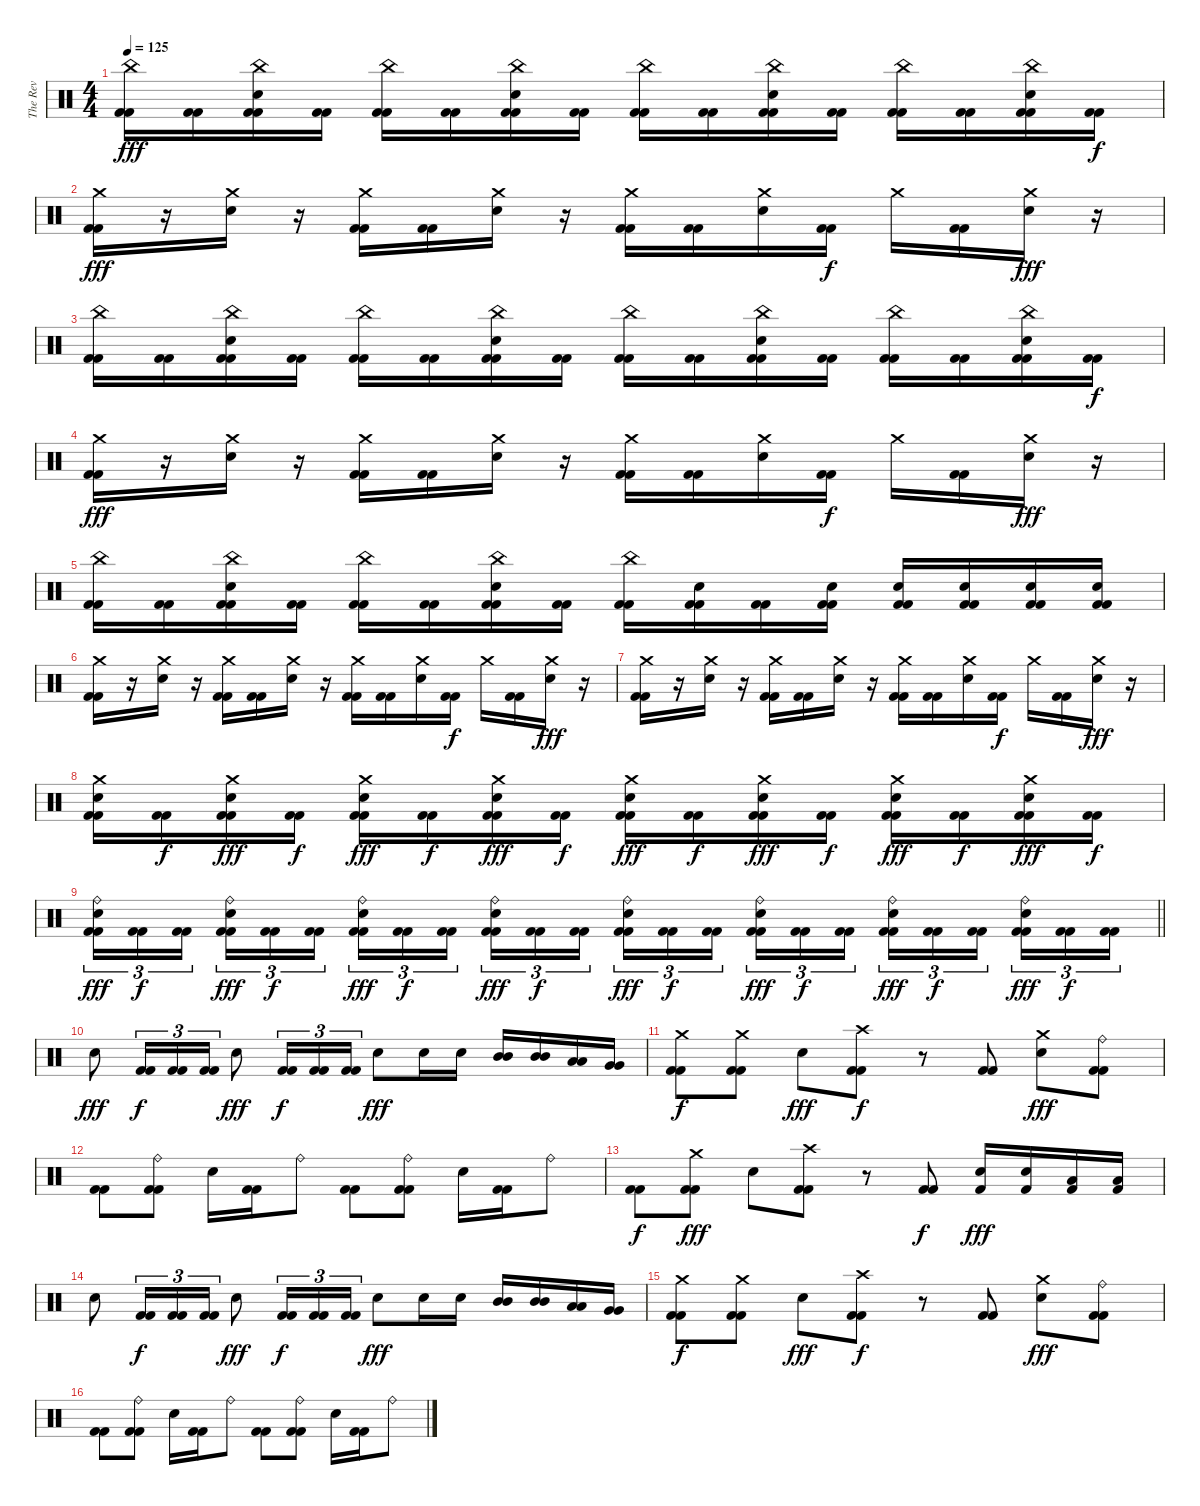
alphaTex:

\track ("The Rev" "The Rev") {mute instrument percussion}
\staff {score}
\articulation defaults
\ts (4 4)
\tempo 125
\clef neutral
\ks c
("China (hit)" "Kick (hit) 2" "Kick (hit) 2").16{dy fff} ("Kick (hit) 2" "Kick (hit) 2").16 ("China (hit)" "Electric Snare (hit)" "Kick (hit) 2" "Kick (hit) 2").16 ("Kick (hit) 2" "Kick (hit) 2").16 ("China (hit)" "Kick (hit) 2" "Kick (hit) 2").16 ("Kick (hit) 2" "Kick (hit) 2").16 ("China (hit)" "Electric Snare (hit)" "Kick (hit) 2" "Kick (hit) 2").16 ("Kick (hit) 2" "Kick (hit) 2").16 ("China (hit)" "Kick (hit) 2" "Kick (hit) 2").16 ("Kick (hit) 2" "Kick (hit) 2").16 ("China (hit)" "Electric Snare (hit)" "Kick (hit) 2" "Kick (hit) 2").16 ("Kick (hit) 2" "Kick (hit) 2").16 ("China (hit)" "Kick (hit) 2" "Kick (hit) 2").16 ("Kick (hit) 2" "Kick (hit) 2").16 ("China (hit)" "Electric Snare (hit)" "Kick (hit) 2" "Kick (hit) 2").16 ("Kick (hit) 2" "Kick (hit) 2").16{dy f} |
("Crash medium (hit)" "Kick (hit) 2" "Kick (hit) 2").16{dy fff} r.16 ("Crash medium (hit)" "Electric Snare (hit)").16 r.16 ("Crash medium (hit)" "Kick (hit) 2" "Kick (hit) 2").16 ("Kick (hit) 2" "Kick (hit) 2").16 ("Crash medium (hit)" "Electric Snare (hit)").16 r.16 ("Crash medium (hit)" "Kick (hit) 2" "Kick (hit) 2").16 ("Kick (hit) 2" "Kick (hit) 2").16 ("Crash medium (hit)" "Electric Snare (hit)").16 ("Kick (hit) 2" "Kick (hit) 2").16{dy f} "Crash medium (hit)".16 ("Kick (hit) 2" "Kick (hit) 2").16 ("Crash medium (hit)" "Electric Snare (hit)").16{dy fff} r.16 |
("China (hit)" "Kick (hit) 2" "Kick (hit) 2").16 ("Kick (hit) 2" "Kick (hit) 2").16 ("China (hit)" "Electric Snare (hit)" "Kick (hit) 2" "Kick (hit) 2").16 ("Kick (hit) 2" "Kick (hit) 2").16 ("China (hit)" "Kick (hit) 2" "Kick (hit) 2").16 ("Kick (hit) 2" "Kick (hit) 2").16 ("China (hit)" "Electric Snare (hit)" "Kick (hit) 2" "Kick (hit) 2").16 ("Kick (hit) 2" "Kick (hit) 2").16 ("China (hit)" "Kick (hit) 2" "Kick (hit) 2").16 ("Kick (hit) 2" "Kick (hit) 2").16 ("China (hit)" "Electric Snare (hit)" "Kick (hit) 2" "Kick (hit) 2").16 ("Kick (hit) 2" "Kick (hit) 2").16 ("China (hit)" "Kick (hit) 2" "Kick (hit) 2").16 ("Kick (hit) 2" "Kick (hit) 2").16 ("China (hit)" "Electric Snare (hit)" "Kick (hit) 2" "Kick (hit) 2").16 ("Kick (hit) 2" "Kick (hit) 2").16{dy f} |
("Crash medium (hit)" "Kick (hit) 2" "Kick (hit) 2").16{dy fff} r.16 ("Crash medium (hit)" "Electric Snare (hit)").16 r.16 ("Crash medium (hit)" "Kick (hit) 2" "Kick (hit) 2").16 ("Kick (hit) 2" "Kick (hit) 2").16 ("Crash medium (hit)" "Electric Snare (hit)").16 r.16 ("Crash medium (hit)" "Kick (hit) 2" "Kick (hit) 2").16 ("Kick (hit) 2" "Kick (hit) 2").16 ("Crash medium (hit)" "Electric Snare (hit)").16 ("Kick (hit) 2" "Kick (hit) 2").16{dy f} "Crash medium (hit)".16 ("Kick (hit) 2" "Kick (hit) 2").16 ("Crash medium (hit)" "Electric Snare (hit)").16{dy fff} r.16 |
("China (hit)" "Kick (hit) 2" "Kick (hit) 2").16 ("Kick (hit) 2" "Kick (hit) 2").16 ("China (hit)" "Electric Snare (hit)" "Kick (hit) 2" "Kick (hit) 2").16 ("Kick (hit) 2" "Kick (hit) 2").16 ("China (hit)" "Kick (hit) 2" "Kick (hit) 2").16 ("Kick (hit) 2" "Kick (hit) 2").16 ("China (hit)" "Electric Snare (hit)" "Kick (hit) 2" "Kick (hit) 2").16 ("Kick (hit) 2" "Kick (hit) 2").16 ("China (hit)" "Kick (hit) 2" "Kick (hit) 2").16 ("Electric Snare (hit)" "Kick (hit) 2" "Kick (hit) 2").16 ("Kick (hit) 2" "Kick (hit) 2").16 ("Electric Snare (hit)" "Kick (hit) 2" "Kick (hit) 2").16 ("Electric Snare (hit)" "Kick (hit) 2" "Kick (hit) 2").16 ("Electric Snare (hit)" "Kick (hit) 2" "Kick (hit) 2").16 ("Electric Snare (hit)" "Kick (hit) 2" "Kick (hit) 2").16 ("Electric Snare (hit)" "Kick (hit) 2" "Kick (hit) 2").16 |
("Crash medium (hit)" "Kick (hit) 2" "Kick (hit) 2").16 r.16 ("Crash medium (hit)" "Electric Snare (hit)").16 r.16 ("Crash medium (hit)" "Kick (hit) 2" "Kick (hit) 2").16 ("Kick (hit) 2" "Kick (hit) 2").16 ("Crash medium (hit)" "Electric Snare (hit)").16 r.16 ("Crash medium (hit)" "Kick (hit) 2" "Kick (hit) 2").16 ("Kick (hit) 2" "Kick (hit) 2").16 ("Crash medium (hit)" "Electric Snare (hit)").16 ("Kick (hit) 2" "Kick (hit) 2").16{dy f} "Crash medium (hit)".16 ("Kick (hit) 2" "Kick (hit) 2").16 ("Crash medium (hit)" "Electric Snare (hit)").16{dy fff} r.16 |
("Crash medium (hit)" "Kick (hit) 2" "Kick (hit) 2").16 r.16 ("Crash medium (hit)" "Electric Snare (hit)").16 r.16 ("Crash medium (hit)" "Kick (hit) 2" "Kick (hit) 2").16 ("Kick (hit) 2" "Kick (hit) 2").16 ("Crash medium (hit)" "Electric Snare (hit)").16 r.16 ("Crash medium (hit)" "Kick (hit) 2" "Kick (hit) 2").16 ("Kick (hit) 2" "Kick (hit) 2").16 ("Crash medium (hit)" "Electric Snare (hit)").16 ("Kick (hit) 2" "Kick (hit) 2").16{dy f} "Crash medium (hit)".16 ("Kick (hit) 2" "Kick (hit) 2").16 ("Crash medium (hit)" "Electric Snare (hit)").16{dy fff} r.16 |
("Crash medium (hit)" "Electric Snare (hit)" "Kick (hit) 2" "Kick (hit) 2").16 ("Kick (hit) 2" "Kick (hit) 2").16{dy f} ("Crash medium (hit)" "Electric Snare (hit)" "Kick (hit) 2" "Kick (hit) 2").16{dy fff} ("Kick (hit) 2" "Kick (hit) 2").16{dy f} ("Crash medium (hit)" "Electric Snare (hit)" "Kick (hit) 2" "Kick (hit) 2").16{dy fff} ("Kick (hit) 2" "Kick (hit) 2").16{dy f} ("Crash medium (hit)" "Electric Snare (hit)" "Kick (hit) 2" "Kick (hit) 2").16{dy fff} ("Kick (hit) 2" "Kick (hit) 2").16{dy f} ("Crash medium (hit)" "Electric Snare (hit)" "Kick (hit) 2" "Kick (hit) 2").16{dy fff} ("Kick (hit) 2" "Kick (hit) 2").16{dy f} ("Crash medium (hit)" "Electric Snare (hit)" "Kick (hit) 2" "Kick (hit) 2").16{dy fff} ("Kick (hit) 2" "Kick (hit) 2").16{dy f} ("Crash medium (hit)" "Electric Snare (hit)" "Kick (hit) 2" "Kick (hit) 2").16{dy fff} ("Kick (hit) 2" "Kick (hit) 2").16{dy f} ("Crash medium (hit)" "Electric Snare (hit)" "Kick (hit) 2" "Kick (hit) 2").16{dy fff} ("Kick (hit) 2" "Kick (hit) 2").16{dy f} |
\barLineRight lightlight
("Ride (bell)" "Electric Snare (hit)" "Kick (hit) 2" "Kick (hit) 2").16{tu (3 2) dy fff} ("Kick (hit) 2" "Kick (hit) 2").16{tu (3 2) dy f} ("Kick (hit) 2" "Kick (hit) 2").16{tu (3 2) beam splitsecondary} ("Ride (bell)" "Electric Snare (hit)" "Kick (hit) 2" "Kick (hit) 2").16{tu (3 2) dy fff} ("Kick (hit) 2" "Kick (hit) 2").16{tu (3 2) dy f} ("Kick (hit) 2" "Kick (hit) 2").16{tu (3 2)} ("Ride (bell)" "Electric Snare (hit)" "Kick (hit) 2" "Kick (hit) 2").16{tu (3 2) dy fff} ("Kick (hit) 2" "Kick (hit) 2").16{tu (3 2) dy f} ("Kick (hit) 2" "Kick (hit) 2").16{tu (3 2) beam splitsecondary} ("Ride (bell)" "Electric Snare (hit)" "Kick (hit) 2" "Kick (hit) 2").16{tu (3 2) dy fff} ("Kick (hit) 2" "Kick (hit) 2").16{tu (3 2) dy f} ("Kick (hit) 2" "Kick (hit) 2").16{tu (3 2)} ("Ride (bell)" "Electric Snare (hit)" "Kick (hit) 2" "Kick (hit) 2").16{tu (3 2) dy fff} ("Kick (hit) 2" "Kick (hit) 2").16{tu (3 2) dy f} ("Kick (hit) 2" "Kick (hit) 2").16{tu (3 2) beam splitsecondary} ("Ride (bell)" "Electric Snare (hit)" "Kick (hit) 2" "Kick (hit) 2").16{tu (3 2) dy fff} ("Kick (hit) 2" "Kick (hit) 2").16{tu (3 2) dy f} ("Kick (hit) 2" "Kick (hit) 2").16{tu (3 2)} ("Ride (bell)" "Electric Snare (hit)" "Kick (hit) 2" "Kick (hit) 2").16{tu (3 2) dy fff} ("Kick (hit) 2" "Kick (hit) 2").16{tu (3 2) dy f} ("Kick (hit) 2" "Kick (hit) 2").16{tu (3 2) beam splitsecondary} ("Ride (bell)" "Electric Snare (hit)" "Kick (hit) 2" "Kick (hit) 2").16{tu (3 2) dy fff} ("Kick (hit) 2" "Kick (hit) 2").16{tu (3 2) dy f} ("Kick (hit) 2" "Kick (hit) 2").16{tu (3 2)} |
"Electric Snare (hit)".8{dy fff} ("Kick (hit) 2" "Kick (hit) 2").16{tu (3 2) dy f} ("Kick (hit) 2" "Kick (hit) 2").16{tu (3 2)} ("Kick (hit) 2" "Kick (hit) 2").16{tu (3 2)} "Electric Snare (hit)".8{dy fff} ("Kick (hit) 2" "Kick (hit) 2").16{tu (3 2) dy f} ("Kick (hit) 2" "Kick (hit) 2").16{tu (3 2)} ("Kick (hit) 2" "Kick (hit) 2").16{tu (3 2)} "Electric Snare (hit)".8{dy fff} "Electric Snare (hit)".16 "Electric Snare (hit)".16 ("Mid Tom (hit)" "Mid Tom (hit)").16 ("Mid Tom (hit)" "Mid Tom (hit)").16 ("Low Tom (hit)" "Low Tom (hit)").16 ("Very Low Tom (hit)" "Very Low Tom (hit)").16 |
("Crash medium (hit)" "Kick (hit) 2" "Kick (hit) 2").8{dy f} ("Crash medium (hit)" "Kick (hit) 2" "Kick (hit) 2").8 "Electric Snare (hit)".8{dy fff} ("Crash high (hit)" "Kick (hit) 2" "Kick (hit) 2").8{dy f} r.8 ("Kick (hit) 2" "Kick (hit) 2").8 ("Crash medium (hit)" "Electric Snare (hit)").8{dy fff} ("Ride (bell)" "Kick (hit) 2" "Kick (hit) 2").8 |
("Kick (hit) 2" "Kick (hit) 2").8 ("Ride (bell)" "Kick (hit) 2" "Kick (hit) 2").8 "Electric Snare (hit)".16 ("Kick (hit) 2" "Kick (hit) 2").16 "Ride (bell)".8 ("Kick (hit) 2" "Kick (hit) 2").8 ("Ride (bell)" "Kick (hit) 2" "Kick (hit) 2").8 "Electric Snare (hit)".16 ("Kick (hit) 2" "Kick (hit) 2").16 "Ride (bell)".8 |
("Kick (hit) 2" "Kick (hit) 2").8{dy f} ("Crash medium (hit)" "Kick (hit) 2" "Kick (hit) 2").8{dy fff} "Electric Snare (hit)".8 ("Crash high (hit)" "Kick (hit) 2" "Kick (hit) 2").8 r.8 ("Kick (hit) 2" "Kick (hit) 2").8{dy f} ("Electric Snare (hit)" "Kick (hit) 2").16{dy fff} ("Electric Snare (hit)" "Kick (hit) 2").16 ("Low Tom (hit)" "Kick (hit) 2").16 ("Low Tom (hit)" "Kick (hit) 2").16 |
"Electric Snare (hit)".8 ("Kick (hit) 2" "Kick (hit) 2").16{tu (3 2) dy f} ("Kick (hit) 2" "Kick (hit) 2").16{tu (3 2)} ("Kick (hit) 2" "Kick (hit) 2").16{tu (3 2)} "Electric Snare (hit)".8{dy fff} ("Kick (hit) 2" "Kick (hit) 2").16{tu (3 2) dy f} ("Kick (hit) 2" "Kick (hit) 2").16{tu (3 2)} ("Kick (hit) 2" "Kick (hit) 2").16{tu (3 2)} "Electric Snare (hit)".8{dy fff} "Electric Snare (hit)".16 "Electric Snare (hit)".16 ("Mid Tom (hit)" "Mid Tom (hit)").16 ("Mid Tom (hit)" "Mid Tom (hit)").16 ("Low Tom (hit)" "Low Tom (hit)").16 ("Very Low Tom (hit)" "Very Low Tom (hit)").16 |
("Crash medium (hit)" "Kick (hit) 2" "Kick (hit) 2").8{dy f} ("Crash medium (hit)" "Kick (hit) 2" "Kick (hit) 2").8 "Electric Snare (hit)".8{dy fff} ("Crash high (hit)" "Kick (hit) 2" "Kick (hit) 2").8{dy f} r.8 ("Kick (hit) 2" "Kick (hit) 2").8 ("Crash medium (hit)" "Electric Snare (hit)").8{dy fff} ("Ride (bell)" "Kick (hit) 2" "Kick (hit) 2").8 |
("Kick (hit) 2" "Kick (hit) 2").8 ("Ride (bell)" "Kick (hit) 2" "Kick (hit) 2").8 "Electric Snare (hit)".16 ("Kick (hit) 2" "Kick (hit) 2").16 "Ride (bell)".8 ("Kick (hit) 2" "Kick (hit) 2").8 ("Ride (bell)" "Kick (hit) 2" "Kick (hit) 2").8 "Electric Snare (hit)".16 ("Kick (hit) 2" "Kick (hit) 2").16 "Ride (bell)".8
